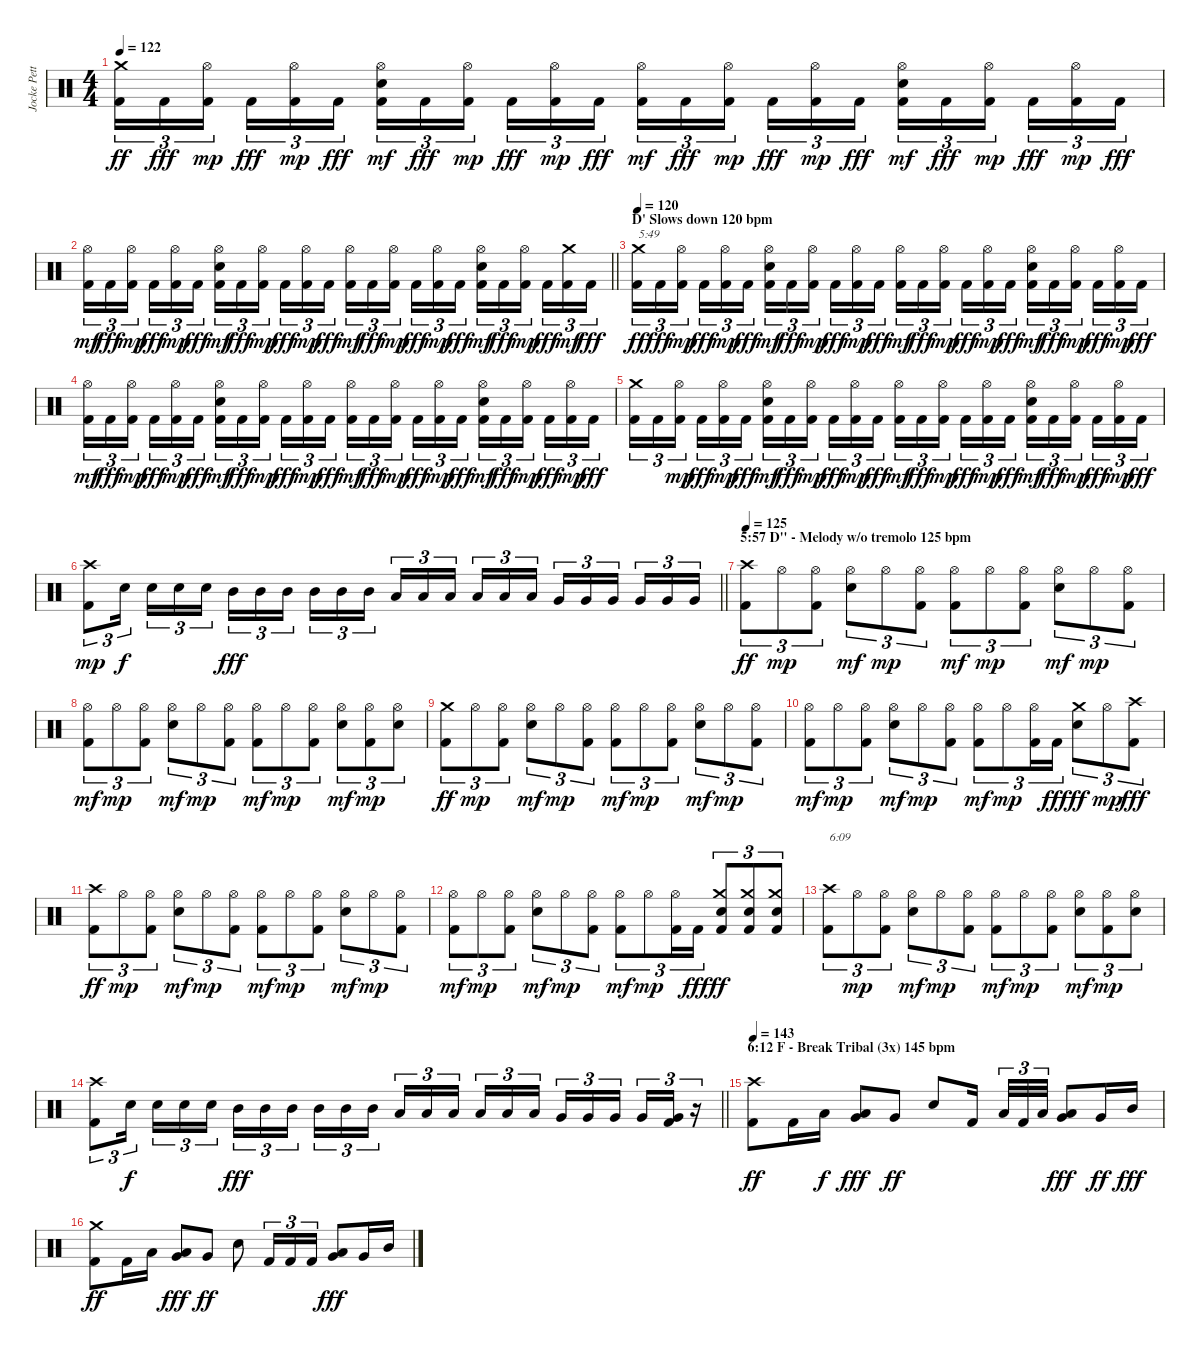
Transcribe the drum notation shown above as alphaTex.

\track ("Jocke Pettersson" "Jocke Pett") {instrument percussion}
\staff {score}
\articulation defaults
\ts (4 4)
\tempo 122
\clef neutral
\ks c
("Kick (hit) 2" "Crash medium (hit)").16{tu (3 2) dy ff} "Kick (hit) 2".16{tu (3 2) dy fff} ("Kick (hit) 2" "Hi-Hat (open)").16{tu (3 2) dy mp beam splitsecondary} "Kick (hit) 2".16{tu (3 2) dy fff} ("Kick (hit) 2" "Hi-Hat (open)").16{tu (3 2) dy mp} "Kick (hit) 2".16{tu (3 2) dy fff} ("Kick (hit) 2" "Electric Snare (hit)" "Hi-Hat (open)").16{tu (3 2) dy mf} "Kick (hit) 2".16{tu (3 2) dy fff} ("Kick (hit) 2" "Hi-Hat (open)").16{tu (3 2) dy mp beam splitsecondary} "Kick (hit) 2".16{tu (3 2) dy fff} ("Kick (hit) 2" "Hi-Hat (open)").16{tu (3 2) dy mp} "Kick (hit) 2".16{tu (3 2) dy fff} ("Kick (hit) 2" "Hi-Hat (open)").16{tu (3 2) dy mf} "Kick (hit) 2".16{tu (3 2) dy fff} ("Kick (hit) 2" "Hi-Hat (open)").16{tu (3 2) dy mp beam splitsecondary} "Kick (hit) 2".16{tu (3 2) dy fff} ("Kick (hit) 2" "Hi-Hat (open)").16{tu (3 2) dy mp} "Kick (hit) 2".16{tu (3 2) dy fff} ("Kick (hit) 2" "Electric Snare (hit)" "Hi-Hat (open)").16{tu (3 2) dy mf} "Kick (hit) 2".16{tu (3 2) dy fff} ("Kick (hit) 2" "Hi-Hat (open)").16{tu (3 2) dy mp beam splitsecondary} "Kick (hit) 2".16{tu (3 2) dy fff} ("Kick (hit) 2" "Hi-Hat (open)").16{tu (3 2) dy mp} "Kick (hit) 2".16{tu (3 2) dy fff} |
\barLineRight lightlight
("Kick (hit) 2" "Hi-Hat (open)").16{tu (3 2) dy mf} "Kick (hit) 2".16{tu (3 2) dy fff} ("Kick (hit) 2" "Hi-Hat (open)").16{tu (3 2) dy mp beam splitsecondary} "Kick (hit) 2".16{tu (3 2) dy fff} ("Kick (hit) 2" "Hi-Hat (open)").16{tu (3 2) dy mp} "Kick (hit) 2".16{tu (3 2) dy fff} ("Kick (hit) 2" "Electric Snare (hit)" "Hi-Hat (open)").16{tu (3 2) dy mf} "Kick (hit) 2".16{tu (3 2) dy fff} ("Kick (hit) 2" "Hi-Hat (open)").16{tu (3 2) dy mp beam splitsecondary} "Kick (hit) 2".16{tu (3 2) dy fff} ("Kick (hit) 2" "Hi-Hat (open)").16{tu (3 2) dy mp} "Kick (hit) 2".16{tu (3 2) dy fff} ("Kick (hit) 2" "Hi-Hat (open)").16{tu (3 2) dy mf} "Kick (hit) 2".16{tu (3 2) dy fff} ("Kick (hit) 2" "Hi-Hat (open)").16{tu (3 2) dy mp beam splitsecondary} "Kick (hit) 2".16{tu (3 2) dy fff} ("Kick (hit) 2" "Hi-Hat (open)").16{tu (3 2) dy mp} "Kick (hit) 2".16{tu (3 2) dy fff} ("Kick (hit) 2" "Electric Snare (hit)" "Hi-Hat (open)").16{tu (3 2) dy mf} "Kick (hit) 2".16{tu (3 2) dy fff} ("Kick (hit) 2" "Hi-Hat (open)").16{tu (3 2) dy mp beam splitsecondary} "Kick (hit) 2".16{tu (3 2) dy fff} ("Kick (hit) 2" "Crash medium (hit)").16{tu (3 2) dy mf} "Kick (hit) 2".16{tu (3 2) dy fff} |
\section ("" "D' Slows down 120 bpm")
\tempo 120
("Kick (hit) 2" "Crash medium (hit)").16{tu (3 2) txt "5:49" dy ff} "Kick (hit) 2".16{tu (3 2) dy fff} ("Kick (hit) 2" "Hi-Hat (open)").16{tu (3 2) dy mp beam splitsecondary} "Kick (hit) 2".16{tu (3 2) dy fff} ("Kick (hit) 2" "Hi-Hat (open)").16{tu (3 2) dy mp} "Kick (hit) 2".16{tu (3 2) dy fff} ("Kick (hit) 2" "Electric Snare (hit)" "Hi-Hat (open)").16{tu (3 2) dy mf} "Kick (hit) 2".16{tu (3 2) dy fff} ("Kick (hit) 2" "Hi-Hat (open)").16{tu (3 2) dy mp beam splitsecondary} "Kick (hit) 2".16{tu (3 2) dy fff} ("Kick (hit) 2" "Hi-Hat (open)").16{tu (3 2) dy mp} "Kick (hit) 2".16{tu (3 2) dy fff} ("Kick (hit) 2" "Hi-Hat (open)").16{tu (3 2) dy mf} "Kick (hit) 2".16{tu (3 2) dy fff} ("Kick (hit) 2" "Hi-Hat (open)").16{tu (3 2) dy mp beam splitsecondary} "Kick (hit) 2".16{tu (3 2) dy fff} ("Kick (hit) 2" "Hi-Hat (open)").16{tu (3 2) dy mp} "Kick (hit) 2".16{tu (3 2) dy fff} ("Kick (hit) 2" "Electric Snare (hit)" "Hi-Hat (open)").16{tu (3 2) dy mf} "Kick (hit) 2".16{tu (3 2) dy fff} ("Kick (hit) 2" "Hi-Hat (open)").16{tu (3 2) dy mp beam splitsecondary} "Kick (hit) 2".16{tu (3 2) dy fff} ("Kick (hit) 2" "Hi-Hat (open)").16{tu (3 2) dy mp} "Kick (hit) 2".16{tu (3 2) dy fff} |
("Kick (hit) 2" "Hi-Hat (open)").16{tu (3 2) dy mf} "Kick (hit) 2".16{tu (3 2) dy fff} ("Kick (hit) 2" "Hi-Hat (open)").16{tu (3 2) dy mp beam splitsecondary} "Kick (hit) 2".16{tu (3 2) dy fff} ("Kick (hit) 2" "Hi-Hat (open)").16{tu (3 2) dy mp} "Kick (hit) 2".16{tu (3 2) dy fff} ("Kick (hit) 2" "Electric Snare (hit)" "Hi-Hat (open)").16{tu (3 2) dy mf} "Kick (hit) 2".16{tu (3 2) dy fff} ("Kick (hit) 2" "Hi-Hat (open)").16{tu (3 2) dy mp beam splitsecondary} "Kick (hit) 2".16{tu (3 2) dy fff} ("Kick (hit) 2" "Hi-Hat (open)").16{tu (3 2) dy mp} "Kick (hit) 2".16{tu (3 2) dy fff} ("Kick (hit) 2" "Hi-Hat (open)").16{tu (3 2) dy mf} "Kick (hit) 2".16{tu (3 2) dy fff} ("Kick (hit) 2" "Hi-Hat (open)").16{tu (3 2) dy mp beam splitsecondary} "Kick (hit) 2".16{tu (3 2) dy fff} ("Kick (hit) 2" "Hi-Hat (open)").16{tu (3 2) dy mp} "Kick (hit) 2".16{tu (3 2) dy fff} ("Kick (hit) 2" "Electric Snare (hit)" "Hi-Hat (open)").16{tu (3 2) dy mf} "Kick (hit) 2".16{tu (3 2) dy fff} ("Kick (hit) 2" "Hi-Hat (open)").16{tu (3 2) dy mp beam splitsecondary} "Kick (hit) 2".16{tu (3 2) dy fff} ("Kick (hit) 2" "Hi-Hat (open)").16{tu (3 2) dy mp} "Kick (hit) 2".16{tu (3 2) dy fff} |
("Kick (hit) 2" "Crash medium (hit)").16{tu (3 2)} "Kick (hit) 2".16{tu (3 2)} ("Kick (hit) 2" "Hi-Hat (open)").16{tu (3 2) dy mp beam splitsecondary} "Kick (hit) 2".16{tu (3 2) dy fff} ("Kick (hit) 2" "Hi-Hat (open)").16{tu (3 2) dy mp} "Kick (hit) 2".16{tu (3 2) dy fff} ("Kick (hit) 2" "Electric Snare (hit)" "Hi-Hat (open)").16{tu (3 2) dy mf} "Kick (hit) 2".16{tu (3 2) dy fff} ("Kick (hit) 2" "Hi-Hat (open)").16{tu (3 2) dy mp beam splitsecondary} "Kick (hit) 2".16{tu (3 2) dy fff} ("Kick (hit) 2" "Hi-Hat (open)").16{tu (3 2) dy mp} "Kick (hit) 2".16{tu (3 2) dy fff} ("Kick (hit) 2" "Hi-Hat (open)").16{tu (3 2) dy mf} "Kick (hit) 2".16{tu (3 2) dy fff} ("Kick (hit) 2" "Hi-Hat (open)").16{tu (3 2) dy mp beam splitsecondary} "Kick (hit) 2".16{tu (3 2) dy fff} ("Kick (hit) 2" "Hi-Hat (open)").16{tu (3 2) dy mp} "Kick (hit) 2".16{tu (3 2) dy fff} ("Kick (hit) 2" "Electric Snare (hit)" "Hi-Hat (open)").16{tu (3 2) dy mf} "Kick (hit) 2".16{tu (3 2) dy fff} ("Kick (hit) 2" "Hi-Hat (open)").16{tu (3 2) dy mp beam splitsecondary} "Kick (hit) 2".16{tu (3 2) dy fff} ("Kick (hit) 2" "Hi-Hat (open)").16{tu (3 2) dy mp} "Kick (hit) 2".16{tu (3 2) dy fff} |
\barLineRight lightlight
("Kick (hit) 2" "Crash high (hit)").8{tu (3 2) dy mp} "Electric Snare (hit)".16{tu (3 2) dy f beam splitsecondary} "Electric Snare (hit)".16{tu (3 2)} "Electric Snare (hit)".16{tu (3 2)} "Electric Snare (hit)".16{tu (3 2)} "Mid Tom (hit)".16{tu (3 2) dy fff} "Mid Tom (hit)".16{tu (3 2)} "Mid Tom (hit)".16{tu (3 2) beam splitsecondary} "Mid Tom (hit)".16{tu (3 2)} "Mid Tom (hit)".16{tu (3 2)} "Mid Tom (hit)".16{tu (3 2)} "Low Tom (hit)".16{tu (3 2)} "Low Tom (hit)".16{tu (3 2)} "Low Tom (hit)".16{tu (3 2) beam splitsecondary} "Low Tom (hit)".16{tu (3 2)} "Low Tom (hit)".16{tu (3 2)} "Low Tom (hit)".16{tu (3 2)} "Very Low Tom (hit)".16{tu (3 2)} "Very Low Tom (hit)".16{tu (3 2)} "Very Low Tom (hit)".16{tu (3 2) beam splitsecondary} "Very Low Tom (hit)".16{tu (3 2)} "Very Low Tom (hit)".16{tu (3 2)} "Very Low Tom (hit)".16{tu (3 2)} |
\section ("" "5:57 D'' - Melody w/o tremolo 125 bpm")
\tempo 125
("Kick (hit) 2" "Crash high (hit)").8{tu (3 2) dy ff} "Hi-Hat (open)".8{tu (3 2) dy mp} ("Kick (hit) 2" "Hi-Hat (open)").8{tu (3 2)} ("Electric Snare (hit)" "Hi-Hat (open)").8{tu (3 2) dy mf} "Hi-Hat (open)".8{tu (3 2) dy mp} ("Kick (hit) 2" "Hi-Hat (open)").8{tu (3 2)} ("Kick (hit) 2" "Hi-Hat (open)").8{tu (3 2) dy mf} "Hi-Hat (open)".8{tu (3 2) dy mp} ("Kick (hit) 2" "Hi-Hat (open)").8{tu (3 2)} ("Electric Snare (hit)" "Hi-Hat (open)").8{tu (3 2) dy mf} "Hi-Hat (open)".8{tu (3 2) dy mp} ("Kick (hit) 2" "Hi-Hat (open)").8{tu (3 2)} |
("Kick (hit) 2" "Hi-Hat (open)").8{tu (3 2) dy mf} "Hi-Hat (open)".8{tu (3 2) dy mp} ("Kick (hit) 2" "Hi-Hat (open)").8{tu (3 2)} ("Electric Snare (hit)" "Hi-Hat (open)").8{tu (3 2) dy mf} "Hi-Hat (open)".8{tu (3 2) dy mp} ("Kick (hit) 2" "Hi-Hat (open)").8{tu (3 2)} ("Kick (hit) 2" "Hi-Hat (open)").8{tu (3 2) dy mf} "Hi-Hat (open)".8{tu (3 2) dy mp} ("Kick (hit) 2" "Hi-Hat (open)").8{tu (3 2)} ("Electric Snare (hit)" "Hi-Hat (open)").8{tu (3 2) dy mf} ("Kick (hit) 2" "Hi-Hat (open)").8{tu (3 2) dy mp} ("Electric Snare (hit)" "Hi-Hat (open)").8{tu (3 2)} |
("Kick (hit) 2" "Crash medium (hit)").8{tu (3 2) dy ff} "Hi-Hat (open)".8{tu (3 2) dy mp} ("Kick (hit) 2" "Hi-Hat (open)").8{tu (3 2)} ("Electric Snare (hit)" "Hi-Hat (open)").8{tu (3 2) dy mf} "Hi-Hat (open)".8{tu (3 2) dy mp} ("Kick (hit) 2" "Hi-Hat (open)").8{tu (3 2)} ("Kick (hit) 2" "Hi-Hat (open)").8{tu (3 2) dy mf} "Hi-Hat (open)".8{tu (3 2) dy mp} ("Kick (hit) 2" "Hi-Hat (open)").8{tu (3 2)} ("Electric Snare (hit)" "Hi-Hat (open)").8{tu (3 2) dy mf} "Hi-Hat (open)".8{tu (3 2) dy mp} ("Kick (hit) 2" "Hi-Hat (open)").8{tu (3 2)} |
("Kick (hit) 2" "Hi-Hat (open)").8{tu (3 2) dy mf} "Hi-Hat (open)".8{tu (3 2) dy mp} ("Kick (hit) 2" "Hi-Hat (open)").8{tu (3 2)} ("Electric Snare (hit)" "Hi-Hat (open)").8{tu (3 2) dy mf} "Hi-Hat (open)".8{tu (3 2) dy mp} ("Kick (hit) 2" "Hi-Hat (open)").8{tu (3 2)} ("Kick (hit) 2" "Hi-Hat (open)").8{tu (3 2) dy mf} "Hi-Hat (open)".8{tu (3 2) dy mp} ("Kick (hit) 2" "Hi-Hat (open)").16{tu (3 2)} "Kick (hit) 2".16{tu (3 2) dy fff} ("Electric Snare (hit)" "Crash medium (hit)").8{tu (3 2) dy ff} "Hi-Hat (open)".8{tu (3 2) dy mp} ("Kick (hit) 2" "Crash high (hit)").8{tu (3 2) dy fff} |
("Kick (hit) 2" "Crash high (hit)").8{tu (3 2) dy ff} "Hi-Hat (open)".8{tu (3 2) dy mp} ("Kick (hit) 2" "Hi-Hat (open)").8{tu (3 2)} ("Electric Snare (hit)" "Hi-Hat (open)").8{tu (3 2) dy mf} "Hi-Hat (open)".8{tu (3 2) dy mp} ("Kick (hit) 2" "Hi-Hat (open)").8{tu (3 2)} ("Kick (hit) 2" "Hi-Hat (open)").8{tu (3 2) dy mf} "Hi-Hat (open)".8{tu (3 2) dy mp} ("Kick (hit) 2" "Hi-Hat (open)").8{tu (3 2)} ("Electric Snare (hit)" "Hi-Hat (open)").8{tu (3 2) dy mf} "Hi-Hat (open)".8{tu (3 2) dy mp} ("Kick (hit) 2" "Hi-Hat (open)").8{tu (3 2)} |
("Kick (hit) 2" "Hi-Hat (open)").8{tu (3 2) dy mf} "Hi-Hat (open)".8{tu (3 2) dy mp} ("Kick (hit) 2" "Hi-Hat (open)").8{tu (3 2)} ("Electric Snare (hit)" "Hi-Hat (open)").8{tu (3 2) dy mf} "Hi-Hat (open)".8{tu (3 2) dy mp} ("Kick (hit) 2" "Hi-Hat (open)").8{tu (3 2)} ("Kick (hit) 2" "Hi-Hat (open)").8{tu (3 2) dy mf} "Hi-Hat (open)".8{tu (3 2) dy mp} ("Kick (hit) 2" "Hi-Hat (open)").16{tu (3 2)} "Kick (hit) 2".16{tu (3 2) dy fff} ("Kick (hit) 2" "Electric Snare (hit)" "Crash medium (hit)").8{tu (3 2) dy ff} ("Kick (hit) 2" "Electric Snare (hit)" "Crash medium (hit)").8{tu (3 2)} ("Kick (hit) 2" "Electric Snare (hit)" "Crash medium (hit)").8{tu (3 2)} |
("Kick (hit) 2" "Crash high (hit)").8{tu (3 2) txt "6:09"} "Hi-Hat (open)".8{tu (3 2) dy mp} ("Kick (hit) 2" "Hi-Hat (open)").8{tu (3 2)} ("Electric Snare (hit)" "Hi-Hat (open)").8{tu (3 2) dy mf} "Hi-Hat (open)".8{tu (3 2) dy mp} ("Kick (hit) 2" "Hi-Hat (open)").8{tu (3 2)} ("Kick (hit) 2" "Hi-Hat (open)").8{tu (3 2) dy mf} "Hi-Hat (open)".8{tu (3 2) dy mp} ("Kick (hit) 2" "Hi-Hat (open)").8{tu (3 2)} ("Electric Snare (hit)" "Hi-Hat (open)").8{tu (3 2) dy mf} ("Kick (hit) 2" "Hi-Hat (open)").8{tu (3 2) dy mp} ("Electric Snare (hit)" "Hi-Hat (open)").8{tu (3 2)} |
\barLineRight lightlight
("Kick (hit) 2" "Crash high (hit)").8{tu (3 2)} "Electric Snare (hit)".16{tu (3 2) dy f beam splitsecondary} "Electric Snare (hit)".16{tu (3 2)} "Electric Snare (hit)".16{tu (3 2)} "Electric Snare (hit)".16{tu (3 2)} "Mid Tom (hit)".16{tu (3 2) dy fff} "Mid Tom (hit)".16{tu (3 2)} "Mid Tom (hit)".16{tu (3 2) beam splitsecondary} "Mid Tom (hit)".16{tu (3 2)} "Mid Tom (hit)".16{tu (3 2)} "Mid Tom (hit)".16{tu (3 2)} "Low Tom (hit)".16{tu (3 2)} "Low Tom (hit)".16{tu (3 2)} "Low Tom (hit)".16{tu (3 2) beam splitsecondary} "Low Tom (hit)".16{tu (3 2)} "Low Tom (hit)".16{tu (3 2)} "Low Tom (hit)".16{tu (3 2)} "Very Low Tom (hit)".16{tu (3 2)} "Very Low Tom (hit)".16{tu (3 2)} "Very Low Tom (hit)".16{tu (3 2) beam splitsecondary} "Very Low Tom (hit)".16{tu (3 2)} ("Kick (hit) 2" "Very Low Tom (hit)").16{tu (3 2)} r.16{tu (3 2)} |
\section ("" "6:12 F - Break Tribal (3x) 145 bpm")
\tempo 143
("Kick (hit) 2" "Crash high (hit)").8{dy ff} "Kick (hit) 2".16 "Low Tom (hit)".16{dy f} ("Very Low Tom (hit)" "Low Tom (hit)").8{dy fff} "Very Low Tom (hit)".8{dy ff} "Electric Snare (hit)".8 "Kick (hit) 2".16{beam splitsecondary} "Low Tom (hit)".32{tu (3 2)} "Kick (hit) 2".32{tu (3 2)} "Low Tom (hit)".32{tu (3 2)} ("Very Low Tom (hit)" "Low Tom (hit)").8{dy fff} "Very Low Tom (hit)".16{dy ff} "Mid Tom (hit)".16{dy fff} |
("Kick (hit) 2" "Crash medium (hit)").8{dy ff} "Kick (hit) 2".16 "Low Tom (hit)".16 ("Very Low Tom (hit)" "Low Tom (hit)").8{dy fff} "Very Low Tom (hit)".8{dy ff} "Electric Snare (hit)".8 "Kick (hit) 2".16{tu (3 2)} "Kick (hit) 2".16{tu (3 2)} "Kick (hit) 2".16{tu (3 2)} ("Very Low Tom (hit)" "Low Tom (hit)").8{dy fff} "Very Low Tom (hit)".16 "Mid Tom (hit)".16
